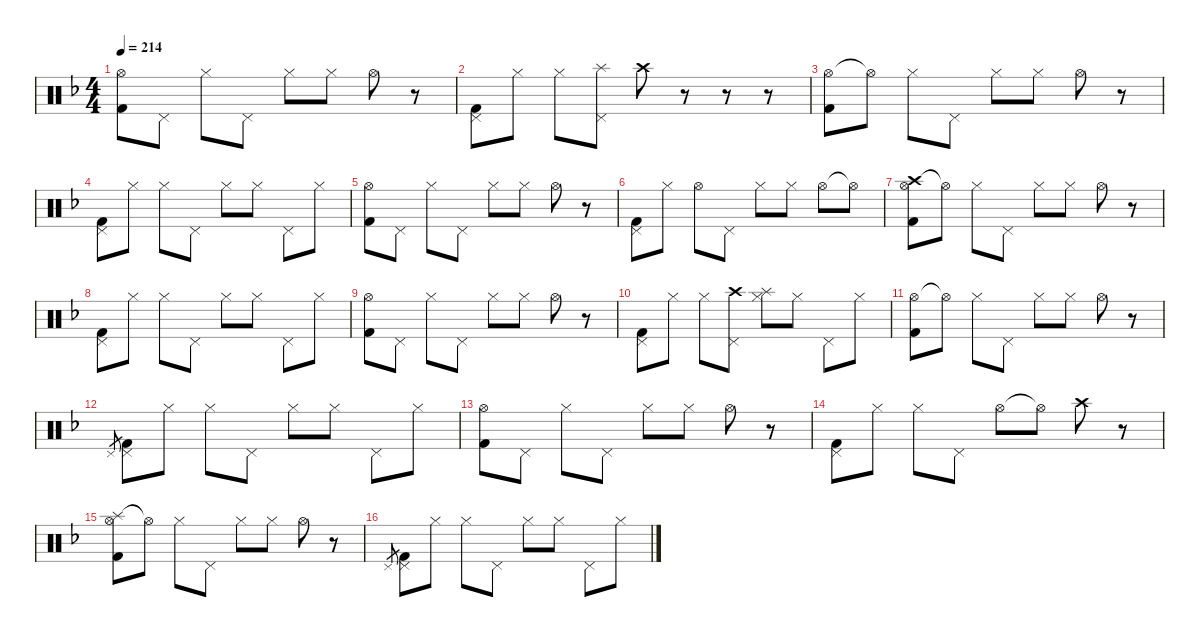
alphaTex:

\hideDynamics
\bracketExtendMode nobrackets
\singleTrackTrackNamePolicy hidden
\multiTrackTrackNamePolicy hidden
\firstSystemTrackNameMode fullname
\firstSystemTrackNameOrientation horizontal
\otherSystemsTrackNameOrientation horizontal
\track ("Drumkit" "Drums") {defaultSystemsLayout 4 instrument percussion}
\staff {score}
\articulation defaults
\ts (4 4)
\tempo 214
\clef neutral
\ks dminor
("Hi-Hat (open)"{acc forcenatural} "Kick (hit) 2"{acc forcenatural}).8{dy mp beam Down} "Pedal Hi-Hat (hit)"{acc forcenatural}.8{beam Down} "Hi-Hat (closed)"{acc forcenatural}.8{dy p beam Down} "Pedal Hi-Hat (hit)"{acc forcenatural}.8{beam Down} "Hi-Hat (closed)"{acc forcenatural}.8{dy mp beam Down} "Hi-Hat (closed)"{acc forcenatural}.8{beam Down} "Hi-Hat (open)"{acc forcenatural}.8{beam Down} r.8{beam Down} |
("Pedal Hi-Hat (hit)"{acc forcenatural} "Kick (hit) 2"{acc forcenatural}).8{dy p beam Down} "Hi-Hat (closed)"{acc forcenatural}.8{beam Down} "Hi-Hat (closed)"{acc forcenatural}.8{dy mp beam Down} ("Splash (hit)"{acc forcenatural} "Pedal Hi-Hat (hit)"{acc forcenatural}).8{dy mf beam Down} "Crash high (hit)"{acc forcenatural}.8{dy mp beam Down} r.8{beam Down} r.8{beam Down} r.8{beam Down} |
("Hi-Hat (open)"{acc forcenatural} "Kick (hit) 2"{acc forcenatural}).8{beam Down} "Hi-Hat (open)"{t acc forcenatural}.8{beam Down} "Hi-Hat (closed)"{acc forcenatural}.8{dy p beam Down} "Pedal Hi-Hat (hit)"{acc forcenatural}.8{beam Down} "Hi-Hat (closed)"{acc forcenatural}.8{dy mp beam Down} "Hi-Hat (closed)"{acc forcenatural}.8{beam Down} "Hi-Hat (open)"{acc forcenatural}.8{beam Down} r.8{beam Down} |
("Pedal Hi-Hat (hit)"{acc forcenatural} "Kick (hit) 2"{acc forcenatural}).8{dy p beam Down} "Hi-Hat (closed)"{acc forcenatural}.8{beam Down} "Hi-Hat (closed)"{acc forcenatural}.8{dy mp beam Down} "Pedal Hi-Hat (hit)"{acc forcenatural}.8{dy mf beam Down} "Hi-Hat (closed)"{acc forcenatural}.8{dy mp beam Down} "Hi-Hat (closed)"{acc forcenatural}.8{beam Down} "Pedal Hi-Hat (hit)"{acc forcenatural}.8{dy p beam Down} "Hi-Hat (closed)"{acc forcenatural}.8{beam Down} |
("Hi-Hat (open)"{acc forcenatural} "Kick (hit) 2"{acc forcenatural}).8{dy mp beam Down} "Pedal Hi-Hat (hit)"{acc forcenatural}.8{beam Down} "Hi-Hat (closed)"{acc forcenatural}.8{dy p beam Down} "Pedal Hi-Hat (hit)"{acc forcenatural}.8{beam Down} "Hi-Hat (closed)"{acc forcenatural}.8{dy mp beam Down} "Hi-Hat (closed)"{acc forcenatural}.8{beam Down} "Hi-Hat (open)"{acc forcenatural}.8{beam Down} r.8{beam Down} |
("Pedal Hi-Hat (hit)"{acc forcenatural} "Kick (hit) 2"{acc forcenatural}).8{dy p beam Down} "Hi-Hat (closed)"{acc forcenatural}.8{beam Down} "Hi-Hat (open)"{acc forcenatural}.8{dy mp beam Down} "Pedal Hi-Hat (hit)"{acc forcenatural}.8{dy f beam Down} "Hi-Hat (closed)"{acc forcenatural}.8{dy mp beam Down} "Hi-Hat (closed)"{acc forcenatural}.8{beam Down} "Hi-Hat (open)"{acc forcenatural}.8{dy p beam Down} "Hi-Hat (open)"{t acc forcenatural}.8{beam Down} |
("Crash high (hit)"{acc forcenatural} "Hi-Hat (open)"{acc forcenatural} "Kick (hit) 2"{acc forcenatural}).8{dy mp beam Down} "Hi-Hat (open)"{t acc forcenatural}.8{beam Down} "Hi-Hat (closed)"{acc forcenatural}.8{dy p beam Down} "Pedal Hi-Hat (hit)"{acc forcenatural}.8{beam Down} "Hi-Hat (closed)"{acc forcenatural}.8{dy mp beam Down} "Hi-Hat (closed)"{acc forcenatural}.8{beam Down} "Hi-Hat (open)"{acc forcenatural}.8{beam Down} r.8{beam Down} |
("Pedal Hi-Hat (hit)"{acc forcenatural} "Kick (hit) 2"{acc forcenatural}).8{dy p beam Down} "Hi-Hat (closed)"{acc forcenatural}.8{beam Down} "Hi-Hat (closed)"{acc forcenatural}.8{dy mp beam Down} "Pedal Hi-Hat (hit)"{acc forcenatural}.8{dy mf beam Down} "Hi-Hat (closed)"{acc forcenatural}.8{dy mp beam Down} "Hi-Hat (closed)"{acc forcenatural}.8{beam Down} "Pedal Hi-Hat (hit)"{acc forcenatural}.8{dy p beam Down} "Hi-Hat (closed)"{acc forcenatural}.8{beam Down} |
("Hi-Hat (open)"{acc forcenatural} "Kick (hit) 2"{acc forcenatural}).8{dy mp beam Down} "Pedal Hi-Hat (hit)"{acc forcenatural}.8{beam Down} "Hi-Hat (closed)"{acc forcenatural}.8{dy p beam Down} "Pedal Hi-Hat (hit)"{acc forcenatural}.8{beam Down} "Hi-Hat (closed)"{acc forcenatural}.8{dy mp beam Down} "Hi-Hat (closed)"{acc forcenatural}.8{beam Down} "Hi-Hat (open)"{acc forcenatural}.8{beam Down} r.8{beam Down} |
("Pedal Hi-Hat (hit)"{acc forcenatural} "Kick (hit) 2"{acc forcenatural}).8{dy p beam Down} "Hi-Hat (closed)"{acc forcenatural}.8{beam Down} "Hi-Hat (closed)"{acc forcenatural}.8{dy mp beam Down} ("Crash high (hit)"{acc forcenatural} "Pedal Hi-Hat (hit)"{acc forcenatural}).8{beam Down} ("Splash (hit)"{acc forcenatural} "Hi-Hat (closed)"{acc forcenatural}).8{beam Down} "Hi-Hat (closed)"{acc forcenatural}.8{beam Down} "Pedal Hi-Hat (hit)"{acc forcenatural}.8{dy p beam Down} "Hi-Hat (closed)"{acc forcenatural}.8{beam Down} |
("Hi-Hat (open)"{acc forcenatural} "Kick (hit) 2"{acc forcenatural}).8{dy mp beam Down} "Hi-Hat (open)"{t acc forcenatural}.8{beam Down} "Hi-Hat (closed)"{acc forcenatural}.8{dy p beam Down} "Pedal Hi-Hat (hit)"{acc forcenatural}.8{beam Down} "Hi-Hat (closed)"{acc forcenatural}.8{dy mp beam Down} "Hi-Hat (closed)"{acc forcenatural}.8{beam Down} "Hi-Hat (open)"{acc forcenatural}.8{beam Down} r.8{beam Down} |
"Pedal Hi-Hat (hit)"{acc forcenatural}.8{gr dy p beam Up} ("Pedal Hi-Hat (hit)"{acc forcenatural} "Kick (hit) 2"{acc forcenatural}).8{beam Down} "Hi-Hat (closed)"{acc forcenatural}.8{beam Down} "Hi-Hat (closed)"{acc forcenatural}.8{dy mp beam Down} "Pedal Hi-Hat (hit)"{acc forcenatural}.8{dy mf beam Down} "Hi-Hat (closed)"{acc forcenatural}.8{dy mp beam Down} "Hi-Hat (closed)"{acc forcenatural}.8{beam Down} "Pedal Hi-Hat (hit)"{acc forcenatural}.8{dy p beam Down} "Hi-Hat (closed)"{acc forcenatural}.8{beam Down} |
("Hi-Hat (open)"{acc forcenatural} "Kick (hit) 2"{acc forcenatural}).8{dy mp beam Down} "Pedal Hi-Hat (hit)"{acc forcenatural}.8{beam Down} "Hi-Hat (closed)"{acc forcenatural}.8{dy p beam Down} "Pedal Hi-Hat (hit)"{acc forcenatural}.8{beam Down} "Hi-Hat (closed)"{acc forcenatural}.8{dy mp beam Down} "Hi-Hat (closed)"{acc forcenatural}.8{beam Down} "Hi-Hat (open)"{acc forcenatural}.8{beam Down} r.8{beam Down} |
("Pedal Hi-Hat (hit)"{acc forcenatural} "Kick (hit) 2"{acc forcenatural}).8{dy p beam Down} "Hi-Hat (closed)"{acc forcenatural}.8{beam Down} "Hi-Hat (closed)"{acc forcenatural}.8{dy mp beam Down} "Pedal Hi-Hat (hit)"{acc forcenatural}.8{dy mf beam Down} "Hi-Hat (open)"{acc forcenatural}.8{dy mp beam Down} "Hi-Hat (open)"{t acc forcenatural}.8{beam Down} "Crash high (hit)"{acc forcenatural}.8{dy p beam Down} r.8{beam Down} |
("Splash (hit)"{acc forcenatural} "Hi-Hat (open)"{acc forcenatural} "Kick (hit) 2"{acc forcenatural}).8{dy mp beam Down} "Hi-Hat (open)"{t acc forcenatural}.8{beam Down} "Hi-Hat (closed)"{acc forcenatural}.8{dy p beam Down} "Pedal Hi-Hat (hit)"{acc forcenatural}.8{beam Down} "Hi-Hat (closed)"{acc forcenatural}.8{dy mp beam Down} "Hi-Hat (closed)"{acc forcenatural}.8{beam Down} "Hi-Hat (open)"{acc forcenatural}.8{beam Down} r.8{beam Down} |
"Pedal Hi-Hat (hit)"{acc forcenatural}.8{gr dy p beam Up} ("Pedal Hi-Hat (hit)"{acc forcenatural} "Kick (hit) 2"{acc forcenatural}).8{beam Down} "Hi-Hat (closed)"{acc forcenatural}.8{beam Down} "Hi-Hat (closed)"{acc forcenatural}.8{dy mp beam Down} "Pedal Hi-Hat (hit)"{acc forcenatural}.8{dy mf beam Down} "Hi-Hat (closed)"{acc forcenatural}.8{dy mp beam Down} "Hi-Hat (closed)"{acc forcenatural}.8{beam Down} "Pedal Hi-Hat (hit)"{acc forcenatural}.8{dy p beam Down} "Hi-Hat (closed)"{acc forcenatural}.8{beam Down}
